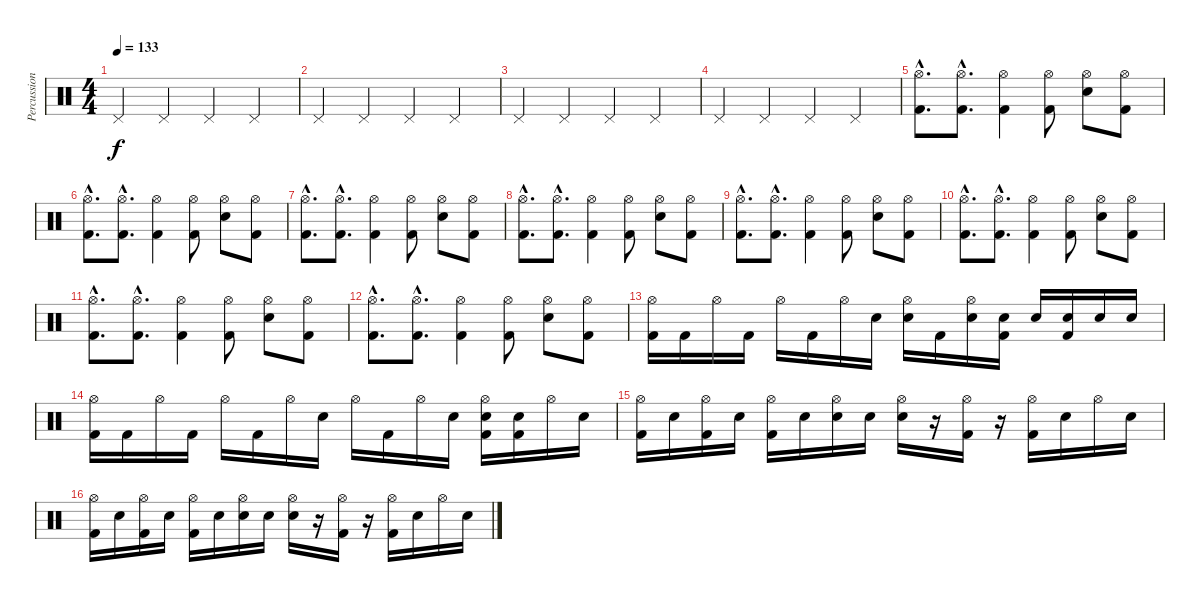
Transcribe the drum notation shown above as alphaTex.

\track ("Percussion" "Percussion") {instrument percussion}
\staff {score}
\articulation defaults
\ts (4 4)
\tempo 133
\clef neutral
\ks c "Pedal Hi-Hat (hit)".4{dy f} "Pedal Hi-Hat (hit)".4 "Pedal Hi-Hat (hit)".4 "Pedal Hi-Hat (hit)".4
|
"Pedal Hi-Hat (hit)".4 "Pedal Hi-Hat (hit)".4 "Pedal Hi-Hat (hit)".4 "Pedal Hi-Hat (hit)".4 |
"Pedal Hi-Hat (hit)".4 "Pedal Hi-Hat (hit)".4 "Pedal Hi-Hat (hit)".4 "Pedal Hi-Hat (hit)".4 |
"Pedal Hi-Hat (hit)".4 "Pedal Hi-Hat (hit)".4 "Pedal Hi-Hat (hit)".4 "Pedal Hi-Hat (hit)".4 |
("Hi-Hat (open)"{hac} "Kick (hit) 2"{hac}).8{d} ("Hi-Hat (open)"{hac} "Kick (hit) 2"{hac}).8{d} ("Hi-Hat (open)" "Kick (hit) 2").4 ("Hi-Hat (open)" "Kick (hit) 2").8 ("Hi-Hat (open)" "Snare (hit) 2").8 ("Hi-Hat (open)" "Kick (hit) 2").8 |
("Hi-Hat (open)"{hac} "Kick (hit) 2"{hac}).8{d} ("Hi-Hat (open)"{hac} "Kick (hit) 2"{hac}).8{d} ("Hi-Hat (open)" "Kick (hit) 2").4 ("Hi-Hat (open)" "Kick (hit) 2").8 ("Hi-Hat (open)" "Snare (hit) 2").8 ("Hi-Hat (open)" "Kick (hit) 2").8 |
("Hi-Hat (open)"{hac} "Kick (hit) 2"{hac}).8{d} ("Hi-Hat (open)"{hac} "Kick (hit) 2"{hac}).8{d} ("Hi-Hat (open)" "Kick (hit) 2").4 ("Hi-Hat (open)" "Kick (hit) 2").8 ("Hi-Hat (open)" "Snare (hit) 2").8 ("Hi-Hat (open)" "Kick (hit) 2").8 |
("Hi-Hat (open)"{hac} "Kick (hit) 2"{hac}).8{d} ("Hi-Hat (open)"{hac} "Kick (hit) 2"{hac}).8{d} ("Hi-Hat (open)" "Kick (hit) 2").4 ("Hi-Hat (open)" "Kick (hit) 2").8 ("Hi-Hat (open)" "Snare (hit) 2").8 ("Hi-Hat (open)" "Kick (hit) 2").8 |
("Hi-Hat (open)"{hac} "Kick (hit) 2"{hac}).8{d} ("Hi-Hat (open)"{hac} "Kick (hit) 2"{hac}).8{d} ("Hi-Hat (open)" "Kick (hit) 2").4 ("Hi-Hat (open)" "Kick (hit) 2").8 ("Hi-Hat (open)" "Snare (hit) 2").8 ("Hi-Hat (open)" "Kick (hit) 2").8 |
("Hi-Hat (open)"{hac} "Kick (hit) 2"{hac}).8{d} ("Hi-Hat (open)"{hac} "Kick (hit) 2"{hac}).8{d} ("Hi-Hat (open)" "Kick (hit) 2").4 ("Hi-Hat (open)" "Kick (hit) 2").8 ("Hi-Hat (open)" "Snare (hit) 2").8 ("Hi-Hat (open)" "Kick (hit) 2").8 |
("Hi-Hat (open)"{hac} "Kick (hit) 2"{hac}).8{d} ("Hi-Hat (open)"{hac} "Kick (hit) 2"{hac}).8{d} ("Hi-Hat (open)" "Kick (hit) 2").4 ("Hi-Hat (open)" "Kick (hit) 2").8 ("Hi-Hat (open)" "Snare (hit) 2").8 ("Hi-Hat (open)" "Kick (hit) 2").8 |
("Hi-Hat (open)"{hac} "Kick (hit) 2"{hac}).8{d} ("Hi-Hat (open)"{hac} "Kick (hit) 2"{hac}).8{d} ("Hi-Hat (open)" "Kick (hit) 2").4 ("Hi-Hat (open)" "Kick (hit) 2").8 ("Hi-Hat (open)" "Snare (hit) 2").8 ("Hi-Hat (open)" "Kick (hit) 2").8 |
("Hi-Hat (open)" "Kick (hit) 2").16 "Kick (hit) 2".16 "Hi-Hat (open)".16 "Kick (hit) 2".16 "Hi-Hat (open)".16 "Kick (hit) 2".16 "Hi-Hat (open)".16 "Snare (hit) 2"{x}.16 ("Hi-Hat (open)" "Snare (hit) 2").16 "Kick (hit) 2".16 ("Hi-Hat (open)" "Snare (hit) 2").16 ("Snare (hit) 2"{x} "Kick (hit) 2").16 "Snare (hit) 2".16 ("Snare (hit) 2" "Kick (hit) 2"{x}).16 "Snare (hit) 2".16 "Snare (hit) 2".16 |
("Hi-Hat (open)" "Kick (hit) 2").16 "Kick (hit) 2".16 "Hi-Hat (open)".16 "Kick (hit) 2".16 "Hi-Hat (open)".16 "Kick (hit) 2".16 "Hi-Hat (open)".16 "Snare (hit) 2"{x}.16 "Hi-Hat (open)".16 "Kick (hit) 2".16 "Hi-Hat (open)".16 "Snare (hit) 2".16 ("Hi-Hat (open)" "Snare (hit) 2" "Kick (hit) 2"{x}).16 ("Snare (hit) 2" "Kick (hit) 2"{x}).16 "Hi-Hat (open)".16 "Snare (hit) 2".16 |
("Hi-Hat (open)" "Kick (hit) 2").16 "Snare (hit) 2".16 ("Hi-Hat (open)" "Kick (hit) 2").16 "Snare (hit)"{x}.16 ("Hi-Hat (open)" "Kick (hit) 2").16 "Snare (hit) 2"{x}.16 ("Hi-Hat (open)" "Snare (hit) 2").16 "Snare (hit) 2"{x}.16 ("Hi-Hat (open)" "Snare (hit) 2").16 r.16 ("Hi-Hat (open)" "Kick (hit) 2").16 r.16 ("Hi-Hat (open)" "Kick (hit) 2").16 "Snare (hit) 2".16 "Hi-Hat (open)".16 "Snare (hit) 2"{x}.16 |
("Hi-Hat (open)" "Kick (hit) 2").16 "Snare (hit) 2".16 ("Hi-Hat (open)" "Kick (hit) 2").16 "Snare (hit)"{x}.16 ("Hi-Hat (open)" "Kick (hit) 2").16 "Snare (hit) 2"{x}.16 ("Hi-Hat (open)" "Snare (hit) 2").16 "Snare (hit) 2"{x}.16 ("Hi-Hat (open)" "Snare (hit) 2").16 r.16 ("Hi-Hat (open)" "Kick (hit) 2").16 r.16 ("Hi-Hat (open)" "Kick (hit) 2").16 "Snare (hit) 2".16 "Hi-Hat (open)".16 "Snare (hit) 2"{x}.16
